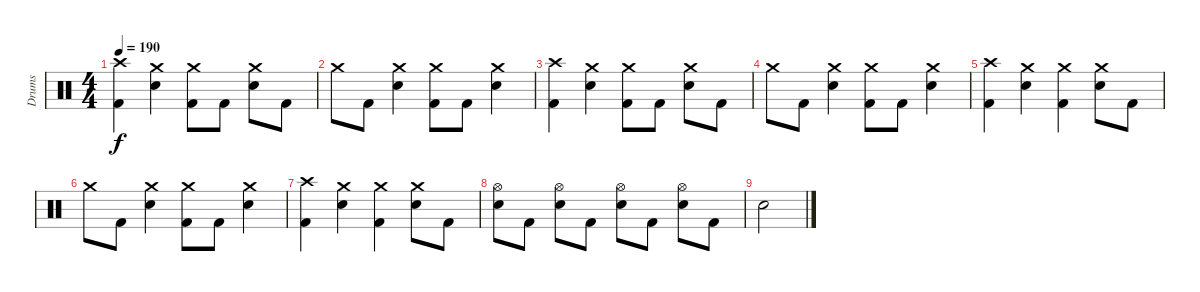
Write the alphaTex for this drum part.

\track ("Drums" "Drums") {instrument percussion}
\staff {score}
\articulation defaults
\ts (4 4)
\tempo 190
\clef neutral
\ks c
("Crash high (hit)" "Kick (hit) 2").4{dy f} ("Crash medium (hit)" "Electric Snare (hit)").4 ("Crash medium (hit)" "Kick (hit) 2").8 "Kick (hit) 2".8 ("Crash medium (hit)" "Electric Snare (hit)").8 "Kick (hit) 2".8 |
"Crash medium (hit)".8 "Kick (hit) 2".8 ("Crash medium (hit)" "Electric Snare (hit)").4 ("Crash medium (hit)" "Kick (hit) 2").8 "Kick (hit) 2".8 ("Crash medium (hit)" "Electric Snare (hit)").4 |
("Crash high (hit)" "Kick (hit) 2").4 ("Crash medium (hit)" "Electric Snare (hit)").4 ("Crash medium (hit)" "Kick (hit) 2").8 "Kick (hit) 2".8 ("Crash medium (hit)" "Electric Snare (hit)").8 "Kick (hit) 2".8 |
"Crash medium (hit)".8 "Kick (hit) 2".8 ("Crash medium (hit)" "Electric Snare (hit)").4 ("Crash medium (hit)" "Kick (hit) 2").8 "Kick (hit) 2".8 ("Crash medium (hit)" "Electric Snare (hit)").4 |
("Crash high (hit)" "Kick (hit) 2").4 ("Crash medium (hit)" "Electric Snare (hit)").4 ("Crash medium (hit)" "Kick (hit) 2").4 ("Crash medium (hit)" "Electric Snare (hit)").8 "Kick (hit) 2".8 |
"Crash medium (hit)".8 "Kick (hit) 2".8 ("Crash medium (hit)" "Electric Snare (hit)").4 ("Crash medium (hit)" "Kick (hit) 2").8 "Kick (hit) 2".8 ("Crash medium (hit)" "Electric Snare (hit)").4 |
("Crash high (hit)" "Kick (hit) 2").4 ("Crash medium (hit)" "Electric Snare (hit)").4 ("Crash medium (hit)" "Kick (hit) 2").4 ("Crash medium (hit)" "Electric Snare (hit)").8 "Kick (hit) 2".8 |
("Hi-Hat (open)" "Electric Snare (hit)").8 "Kick (hit) 2".8 ("Hi-Hat (open)" "Electric Snare (hit)").8 "Kick (hit) 2".8 ("Hi-Hat (open)" "Electric Snare (hit)").8 "Kick (hit) 2".8 ("Hi-Hat (open)" "Electric Snare (hit)").8 "Kick (hit) 2".8 |
"Electric Snare (hit)".2
